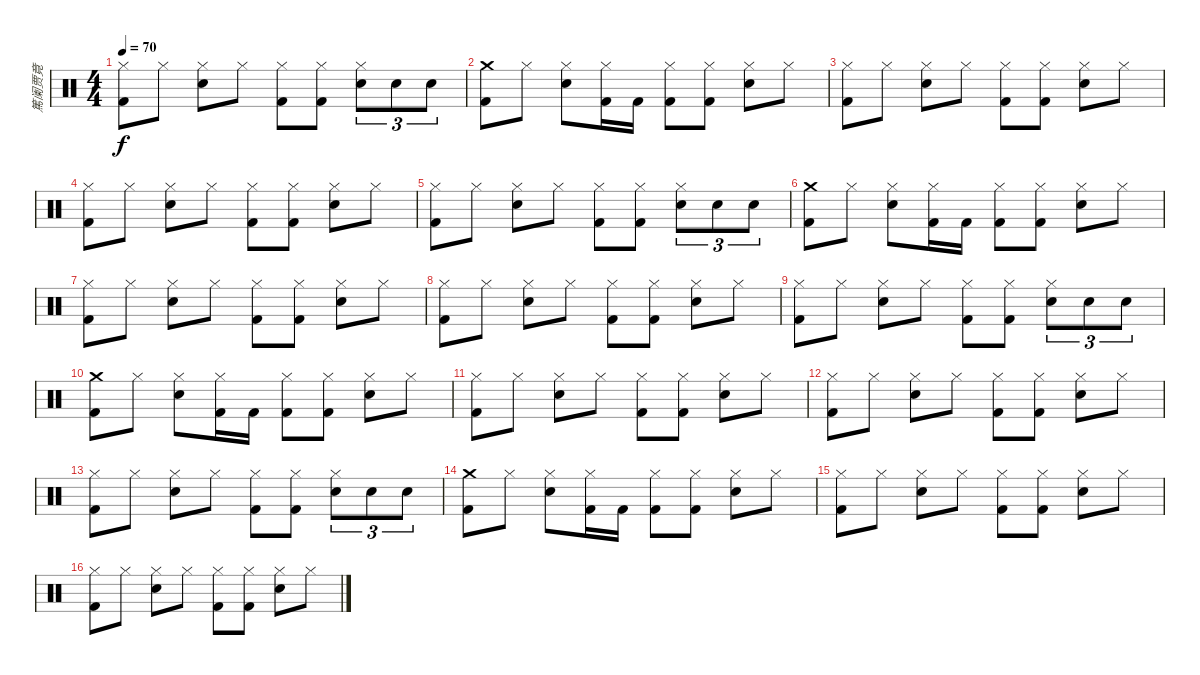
\track ("篤阑贾竟" "篤阑贾竟") {instrument percussion}
\staff {score}
\articulation defaults
\ts (4 4)
\tempo 70
\clef neutral
\ks c
("Hi-Hat (closed)" "Kick (hit) 2").8{dy f} "Hi-Hat (closed)".8 ("Hi-Hat (closed)" "Snare (hit) 2").8 "Hi-Hat (closed)".8 ("Hi-Hat (closed)" "Kick (hit) 2").8 ("Hi-Hat (closed)" "Kick (hit) 2").8 ("Hi-Hat (closed)" "Snare (hit) 2").8{tu (3 2)} "Snare (hit) 2".8{tu (3 2)} "Snare (hit) 2".8{tu (3 2)} |
("Crash medium (hit)" "Kick (hit) 2").8 "Hi-Hat (closed)".8 ("Hi-Hat (closed)" "Snare (hit) 2").8 ("Hi-Hat (closed)" "Kick (hit) 2").16 "Kick (hit) 2".16 ("Hi-Hat (closed)" "Kick (hit) 2").8 ("Hi-Hat (closed)" "Kick (hit) 2").8 ("Hi-Hat (closed)" "Snare (hit) 2").8 "Hi-Hat (closed)".8 |
("Hi-Hat (closed)" "Kick (hit) 2").8 "Hi-Hat (closed)".8 ("Hi-Hat (closed)" "Snare (hit) 2").8 "Hi-Hat (closed)".8 ("Hi-Hat (closed)" "Kick (hit) 2").8 ("Hi-Hat (closed)" "Kick (hit) 2").8 ("Hi-Hat (closed)" "Snare (hit) 2").8 "Hi-Hat (closed)".8 |
("Hi-Hat (closed)" "Kick (hit) 2").8 "Hi-Hat (closed)".8 ("Hi-Hat (closed)" "Snare (hit) 2").8 "Hi-Hat (closed)".8 ("Hi-Hat (closed)" "Kick (hit) 2").8 ("Hi-Hat (closed)" "Kick (hit) 2").8 ("Hi-Hat (closed)" "Snare (hit) 2").8 "Hi-Hat (closed)".8 |
("Hi-Hat (closed)" "Kick (hit) 2").8 "Hi-Hat (closed)".8 ("Hi-Hat (closed)" "Snare (hit) 2").8 "Hi-Hat (closed)".8 ("Hi-Hat (closed)" "Kick (hit) 2").8 ("Hi-Hat (closed)" "Kick (hit) 2").8 ("Hi-Hat (closed)" "Snare (hit) 2").8{tu (3 2)} "Snare (hit) 2".8{tu (3 2)} "Snare (hit) 2".8{tu (3 2)} |
("Crash medium (hit)" "Kick (hit) 2").8 "Hi-Hat (closed)".8 ("Hi-Hat (closed)" "Snare (hit) 2").8 ("Hi-Hat (closed)" "Kick (hit) 2").16 "Kick (hit) 2".16 ("Hi-Hat (closed)" "Kick (hit) 2").8 ("Hi-Hat (closed)" "Kick (hit) 2").8 ("Hi-Hat (closed)" "Snare (hit) 2").8 "Hi-Hat (closed)".8 |
("Hi-Hat (closed)" "Kick (hit) 2").8 "Hi-Hat (closed)".8 ("Hi-Hat (closed)" "Snare (hit) 2").8 "Hi-Hat (closed)".8 ("Hi-Hat (closed)" "Kick (hit) 2").8 ("Hi-Hat (closed)" "Kick (hit) 2").8 ("Hi-Hat (closed)" "Snare (hit) 2").8 "Hi-Hat (closed)".8 |
("Hi-Hat (closed)" "Kick (hit) 2").8 "Hi-Hat (closed)".8 ("Hi-Hat (closed)" "Snare (hit) 2").8 "Hi-Hat (closed)".8 ("Hi-Hat (closed)" "Kick (hit) 2").8 ("Hi-Hat (closed)" "Kick (hit) 2").8 ("Hi-Hat (closed)" "Snare (hit) 2").8 "Hi-Hat (closed)".8 |
("Hi-Hat (closed)" "Kick (hit) 2").8 "Hi-Hat (closed)".8 ("Hi-Hat (closed)" "Snare (hit) 2").8 "Hi-Hat (closed)".8 ("Hi-Hat (closed)" "Kick (hit) 2").8 ("Hi-Hat (closed)" "Kick (hit) 2").8 ("Hi-Hat (closed)" "Snare (hit) 2").8{tu (3 2)} "Snare (hit) 2".8{tu (3 2)} "Snare (hit) 2".8{tu (3 2)} |
("Crash medium (hit)" "Kick (hit) 2").8 "Hi-Hat (closed)".8 ("Hi-Hat (closed)" "Snare (hit) 2").8 ("Hi-Hat (closed)" "Kick (hit) 2").16 "Kick (hit) 2".16 ("Hi-Hat (closed)" "Kick (hit) 2").8 ("Hi-Hat (closed)" "Kick (hit) 2").8 ("Hi-Hat (closed)" "Snare (hit) 2").8 "Hi-Hat (closed)".8 |
("Hi-Hat (closed)" "Kick (hit) 2").8 "Hi-Hat (closed)".8 ("Hi-Hat (closed)" "Snare (hit) 2").8 "Hi-Hat (closed)".8 ("Hi-Hat (closed)" "Kick (hit) 2").8 ("Hi-Hat (closed)" "Kick (hit) 2").8 ("Hi-Hat (closed)" "Snare (hit) 2").8 "Hi-Hat (closed)".8 |
("Hi-Hat (closed)" "Kick (hit) 2").8 "Hi-Hat (closed)".8 ("Hi-Hat (closed)" "Snare (hit) 2").8 "Hi-Hat (closed)".8 ("Hi-Hat (closed)" "Kick (hit) 2").8 ("Hi-Hat (closed)" "Kick (hit) 2").8 ("Hi-Hat (closed)" "Snare (hit) 2").8 "Hi-Hat (closed)".8 |
("Hi-Hat (closed)" "Kick (hit) 2").8 "Hi-Hat (closed)".8 ("Hi-Hat (closed)" "Snare (hit) 2").8 "Hi-Hat (closed)".8 ("Hi-Hat (closed)" "Kick (hit) 2").8 ("Hi-Hat (closed)" "Kick (hit) 2").8 ("Hi-Hat (closed)" "Snare (hit) 2").8{tu (3 2)} "Snare (hit) 2".8{tu (3 2)} "Snare (hit) 2".8{tu (3 2)} |
("Crash medium (hit)" "Kick (hit) 2").8{volume 0} "Hi-Hat (closed)".8 ("Hi-Hat (closed)" "Snare (hit) 2").8 ("Hi-Hat (closed)" "Kick (hit) 2").16 "Kick (hit) 2".16 ("Hi-Hat (closed)" "Kick (hit) 2").8 ("Hi-Hat (closed)" "Kick (hit) 2").8 ("Hi-Hat (closed)" "Snare (hit) 2").8 "Hi-Hat (closed)".8 |
("Hi-Hat (closed)" "Kick (hit) 2").8 "Hi-Hat (closed)".8 ("Hi-Hat (closed)" "Snare (hit) 2").8 "Hi-Hat (closed)".8 ("Hi-Hat (closed)" "Kick (hit) 2").8 ("Hi-Hat (closed)" "Kick (hit) 2").8 ("Hi-Hat (closed)" "Snare (hit) 2").8 "Hi-Hat (closed)".8 |
("Hi-Hat (closed)" "Kick (hit) 2").8 "Hi-Hat (closed)".8 ("Hi-Hat (closed)" "Snare (hit) 2").8 "Hi-Hat (closed)".8 ("Hi-Hat (closed)" "Kick (hit) 2").8 ("Hi-Hat (closed)" "Kick (hit) 2").8 ("Hi-Hat (closed)" "Snare (hit) 2").8 "Hi-Hat (closed)".8
